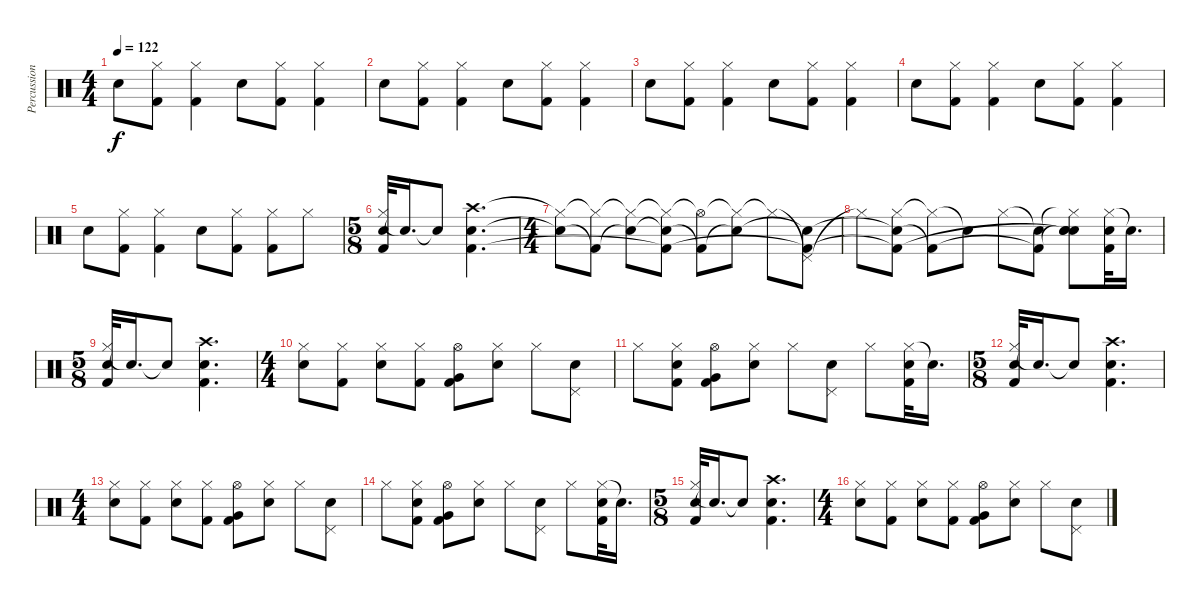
\track ("Percussion" "Percussion") {instrument percussion}
\staff {score}
\articulation defaults
\ts (4 4)
\tempo 122
\clef neutral
\ks c "Snare (hit) 2".8{dy f}
("Hi-Hat (closed)" "Kick (hit) 2").8 ("Hi-Hat (closed)" "Kick (hit) 2").4 "Snare (hit) 2".8 ("Hi-Hat (closed)" "Kick (hit) 2").8 ("Hi-Hat (closed)" "Kick (hit) 2").4 |
"Snare (hit) 2".8 ("Hi-Hat (closed)" "Kick (hit) 2").8 ("Hi-Hat (closed)" "Kick (hit) 2").4 "Snare (hit) 2".8 ("Hi-Hat (closed)" "Kick (hit) 2").8 ("Hi-Hat (closed)" "Kick (hit) 2").4 |
"Snare (hit) 2".8 ("Hi-Hat (closed)" "Kick (hit) 2").8 ("Hi-Hat (closed)" "Kick (hit) 2").4 "Snare (hit) 2".8 ("Hi-Hat (closed)" "Kick (hit) 2").8 ("Hi-Hat (closed)" "Kick (hit) 2").4 |
"Snare (hit) 2".8 ("Hi-Hat (closed)" "Kick (hit) 2").8 ("Hi-Hat (closed)" "Kick (hit) 2").4 "Snare (hit) 2".8 ("Hi-Hat (closed)" "Kick (hit) 2").8 ("Hi-Hat (closed)" "Kick (hit) 2").4 |
"Snare (hit) 2".8 ("Hi-Hat (closed)" "Kick (hit) 2").8 ("Hi-Hat (closed)" "Kick (hit) 2").4 "Snare (hit) 2".8 ("Hi-Hat (closed)" "Kick (hit) 2").8 ("Hi-Hat (closed)" "Kick (hit) 2").8 "Hi-Hat (closed)".8 |
\ts (5 8)
("Hi-Hat (closed)" "Snare (hit) 2" "Kick (hit) 2").32 "Electric Snare (hit)"{t}.16{d} "Electric Snare (hit)"{t}.8 ("Crash high (hit)" "Snare (hit) 2" "Kick (hit) 2").4{d} |
\ts (4 4)
("Hi-Hat (closed)"{t} "Electric Snare (hit)"{t}).8 ("Hi-Hat (closed)"{t} "Kick (hit) 2"{t}).8 ("Hi-Hat (closed)"{t} "Electric Snare (hit)"{t}).8 ("Hi-Hat (closed)"{t} "Electric Snare (hit)"{t} "Kick (hit) 2"{t}).8 ("Hi-Hat (open)"{t} "Kick (hit) 2"{t}).8 ("Hi-Hat (closed)"{t} "Electric Snare (hit)"{t}).8 "Hi-Hat (closed)"{t}.8 ("Pedal Hi-Hat (hit)"{t} "Electric Snare (hit)"{t} "Kick (hit) 2"{t}).8 |
"Hi-Hat (closed)"{t}.8 ("Hi-Hat (closed)" "Electric Snare (hit)"{t} "Kick (hit) 2"{t}).8 ("Hi-Hat (closed)"{t} "Kick (hit) 2"{t}).8 "Electric Snare (hit)"{t}.8 "Hi-Hat (closed)".8 ("Electric Snare (hit)"{t} "Kick (hit) 2"{t}).8 ("Hi-Hat (closed)"{t} "Snare (hit)"{t} "Snare (hit)"{t} "Snare (hit)").8 ("Hi-Hat (closed)" "Snare (hit) 2" "Kick (hit) 2").32 "Electric Snare (hit)"{t}.16{d} |
\ts (5 8)
("Hi-Hat (closed)" "Snare (hit) 2" "Kick (hit) 2").32 "Snare (hit)"{t}.16{d} "Electric Snare (hit)"{t}.8 ("Crash high (hit)" "Snare (hit) 2" "Kick (hit) 2").4{d} |
\ts (4 4)
("Hi-Hat (closed)" "Snare (hit) 2").8 ("Hi-Hat (closed)" "Kick (hit) 2").8 ("Hi-Hat (closed)" "Snare (hit) 2").8 ("Hi-Hat (closed)" "Kick (hit) 2").8 ("Hi-Hat (open)" "Very Low Tom (hit)" "Kick (hit) 2").8 ("Hi-Hat (closed)" "Snare (hit) 2").8 "Hi-Hat (closed)".8 ("Pedal Hi-Hat (hit)" "Snare (hit) 2").8 |
"Hi-Hat (closed)".8 ("Hi-Hat (closed)" "Snare (hit) 2" "Kick (hit) 2").8 ("Hi-Hat (open)" "Very Low Tom (hit)" "Kick (hit) 2").8 ("Hi-Hat (closed)" "Snare (hit) 2").8 "Hi-Hat (closed)".8 ("Pedal Hi-Hat (hit)" "Snare (hit) 2").8 "Hi-Hat (closed)".8 ("Hi-Hat (closed)" "Snare (hit) 2" "Kick (hit) 2").32 "Electric Snare (hit)"{t}.16{d} |
\ts (5 8)
("Hi-Hat (closed)" "Snare (hit) 2" "Kick (hit) 2").32 "Electric Snare (hit)"{t}.16{d} "Electric Snare (hit)"{t}.8 ("Crash high (hit)" "Snare (hit) 2" "Kick (hit) 2").4{d} |
\ts (4 4)
("Hi-Hat (closed)" "Snare (hit) 2").8 ("Hi-Hat (closed)" "Kick (hit) 2").8 ("Hi-Hat (closed)" "Snare (hit) 2").8 ("Hi-Hat (closed)" "Kick (hit) 2").8 ("Hi-Hat (open)" "Very Low Tom (hit)" "Kick (hit) 2").8 ("Hi-Hat (closed)" "Snare (hit) 2").8 "Hi-Hat (closed)".8 ("Pedal Hi-Hat (hit)" "Snare (hit) 2").8 |
"Hi-Hat (closed)".8 ("Hi-Hat (closed)" "Snare (hit) 2" "Kick (hit) 2").8 ("Hi-Hat (open)" "Very Low Tom (hit)" "Kick (hit) 2").8 ("Hi-Hat (closed)" "Snare (hit) 2").8 "Hi-Hat (closed)".8 ("Pedal Hi-Hat (hit)" "Snare (hit) 2").8 "Hi-Hat (closed)".8 ("Hi-Hat (closed)" "Snare (hit) 2" "Kick (hit) 2").32 "Electric Snare (hit)"{t}.16{d} |
\ts (5 8)
("Hi-Hat (closed)" "Snare (hit) 2" "Kick (hit) 2").32 "Electric Snare (hit)"{t}.16{d} "Electric Snare (hit)"{t}.8 ("Crash high (hit)" "Snare (hit) 2" "Kick (hit) 2").4{d} |
\ts (4 4)
("Hi-Hat (closed)" "Snare (hit) 2").8 ("Hi-Hat (closed)" "Kick (hit) 2").8 ("Hi-Hat (closed)" "Snare (hit) 2").8 ("Hi-Hat (closed)" "Kick (hit) 2").8 ("Hi-Hat (open)" "Very Low Tom (hit)" "Kick (hit) 2").8 ("Hi-Hat (closed)" "Snare (hit) 2").8 "Hi-Hat (closed)".8 ("Pedal Hi-Hat (hit)" "Snare (hit) 2").8
